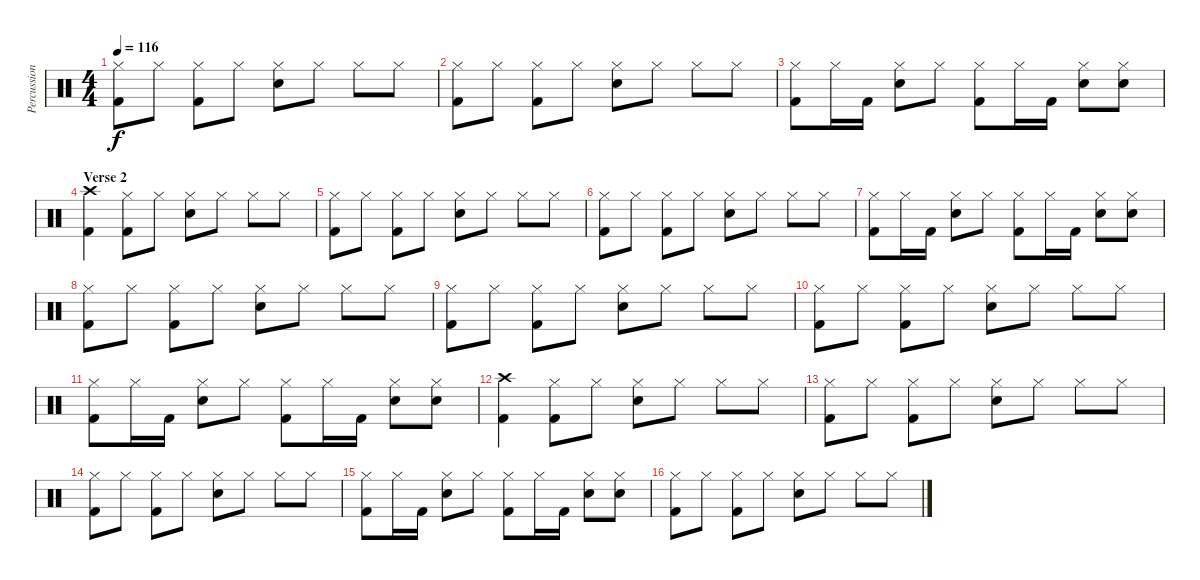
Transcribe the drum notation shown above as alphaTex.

\track ("Percussion" "Percussion") {instrument percussion}
\staff {score}
\articulation defaults
\ts (4 4)
\tempo 116
\clef neutral
\ks c
("Kick (hit) 2" "Hi-Hat (closed)").8{dy f} "Hi-Hat (closed)".8 ("Kick (hit) 2" "Hi-Hat (closed)").8 "Hi-Hat (closed)".8 ("Electric Snare (hit)" "Hi-Hat (closed)").8 "Hi-Hat (closed)".8 "Hi-Hat (closed)".8 "Hi-Hat (closed)".8 |
("Kick (hit) 2" "Hi-Hat (closed)").8 "Hi-Hat (closed)".8 ("Kick (hit) 2" "Hi-Hat (closed)").8 "Hi-Hat (closed)".8 ("Electric Snare (hit)" "Hi-Hat (closed)").8 "Hi-Hat (closed)".8 "Hi-Hat (closed)".8 "Hi-Hat (closed)".8 |
("Kick (hit) 2" "Hi-Hat (closed)").8 "Hi-Hat (closed)".16 "Kick (hit) 2".16 ("Electric Snare (hit)" "Hi-Hat (closed)").8 "Hi-Hat (closed)".8 ("Kick (hit) 2" "Hi-Hat (closed)").8 "Hi-Hat (closed)".16 "Kick (hit) 2".16 ("Electric Snare (hit)" "Hi-Hat (closed)").8 ("Electric Snare (hit)" "Hi-Hat (closed)").8 |
\section ("" "Verse 2")
("Kick (hit) 2" "Crash high (hit)").4 ("Kick (hit) 2" "Hi-Hat (closed)").8 "Hi-Hat (closed)".8 ("Electric Snare (hit)" "Hi-Hat (closed)").8 "Hi-Hat (closed)".8 "Hi-Hat (closed)".8 "Hi-Hat (closed)".8 |
("Kick (hit) 2" "Hi-Hat (closed)").8 "Hi-Hat (closed)".8 ("Kick (hit) 2" "Hi-Hat (closed)").8 "Hi-Hat (closed)".8 ("Electric Snare (hit)" "Hi-Hat (closed)").8 "Hi-Hat (closed)".8 "Hi-Hat (closed)".8 "Hi-Hat (closed)".8 |
("Kick (hit) 2" "Hi-Hat (closed)").8 "Hi-Hat (closed)".8 ("Kick (hit) 2" "Hi-Hat (closed)").8 "Hi-Hat (closed)".8 ("Electric Snare (hit)" "Hi-Hat (closed)").8 "Hi-Hat (closed)".8 "Hi-Hat (closed)".8 "Hi-Hat (closed)".8 |
("Kick (hit) 2" "Hi-Hat (closed)").8 "Hi-Hat (closed)".16 "Kick (hit) 2".16 ("Electric Snare (hit)" "Hi-Hat (closed)").8 "Hi-Hat (closed)".8 ("Kick (hit) 2" "Hi-Hat (closed)").8 "Hi-Hat (closed)".16 "Kick (hit) 2".16 ("Electric Snare (hit)" "Hi-Hat (closed)").8 ("Electric Snare (hit)" "Hi-Hat (closed)").8 |
("Kick (hit) 2" "Hi-Hat (closed)").8 "Hi-Hat (closed)".8 ("Kick (hit) 2" "Hi-Hat (closed)").8 "Hi-Hat (closed)".8 ("Electric Snare (hit)" "Hi-Hat (closed)").8 "Hi-Hat (closed)".8 "Hi-Hat (closed)".8 "Hi-Hat (closed)".8 |
("Kick (hit) 2" "Hi-Hat (closed)").8 "Hi-Hat (closed)".8 ("Kick (hit) 2" "Hi-Hat (closed)").8 "Hi-Hat (closed)".8 ("Electric Snare (hit)" "Hi-Hat (closed)").8 "Hi-Hat (closed)".8 "Hi-Hat (closed)".8 "Hi-Hat (closed)".8 |
("Kick (hit) 2" "Hi-Hat (closed)").8 "Hi-Hat (closed)".8 ("Kick (hit) 2" "Hi-Hat (closed)").8 "Hi-Hat (closed)".8 ("Electric Snare (hit)" "Hi-Hat (closed)").8 "Hi-Hat (closed)".8 "Hi-Hat (closed)".8 "Hi-Hat (closed)".8 |
("Kick (hit) 2" "Hi-Hat (closed)").8 "Hi-Hat (closed)".16 "Kick (hit) 2".16 ("Electric Snare (hit)" "Hi-Hat (closed)").8 "Hi-Hat (closed)".8 ("Kick (hit) 2" "Hi-Hat (closed)").8 "Hi-Hat (closed)".16 "Kick (hit) 2".16 ("Electric Snare (hit)" "Hi-Hat (closed)").8 ("Electric Snare (hit)" "Hi-Hat (closed)").8 |
("Kick (hit) 2" "Crash high (hit)").4 ("Kick (hit) 2" "Hi-Hat (closed)").8 "Hi-Hat (closed)".8 ("Electric Snare (hit)" "Hi-Hat (closed)").8 "Hi-Hat (closed)".8 "Hi-Hat (closed)".8 "Hi-Hat (closed)".8 |
("Kick (hit) 2" "Hi-Hat (closed)").8 "Hi-Hat (closed)".8 ("Kick (hit) 2" "Hi-Hat (closed)").8 "Hi-Hat (closed)".8 ("Electric Snare (hit)" "Hi-Hat (closed)").8 "Hi-Hat (closed)".8 "Hi-Hat (closed)".8 "Hi-Hat (closed)".8 |
("Kick (hit) 2" "Hi-Hat (closed)").8 "Hi-Hat (closed)".8 ("Kick (hit) 2" "Hi-Hat (closed)").8 "Hi-Hat (closed)".8 ("Electric Snare (hit)" "Hi-Hat (closed)").8 "Hi-Hat (closed)".8 "Hi-Hat (closed)".8 "Hi-Hat (closed)".8 |
("Kick (hit) 2" "Hi-Hat (closed)").8 "Hi-Hat (closed)".16 "Kick (hit) 2".16 ("Electric Snare (hit)" "Hi-Hat (closed)").8 "Hi-Hat (closed)".8 ("Kick (hit) 2" "Hi-Hat (closed)").8 "Hi-Hat (closed)".16 "Kick (hit) 2".16 ("Electric Snare (hit)" "Hi-Hat (closed)").8 ("Electric Snare (hit)" "Hi-Hat (closed)").8 |
("Kick (hit) 2" "Hi-Hat (closed)").8 "Hi-Hat (closed)".8 ("Kick (hit) 2" "Hi-Hat (closed)").8 "Hi-Hat (closed)".8 ("Electric Snare (hit)" "Hi-Hat (closed)").8 "Hi-Hat (closed)".8 "Hi-Hat (closed)".8 "Hi-Hat (closed)".8
